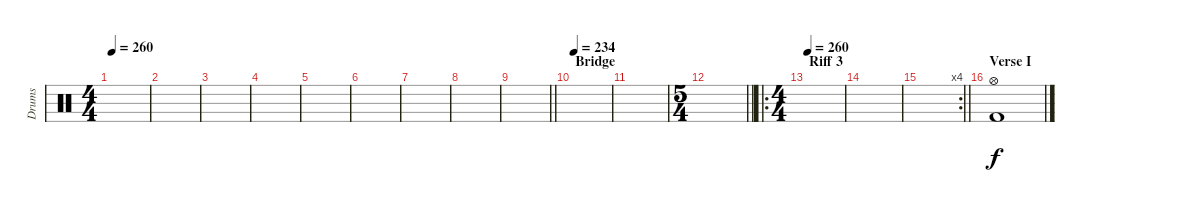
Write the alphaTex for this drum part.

\track ("Drums" "Drums") {instrument percussion}
\staff {score}
\articulation defaults
\ts (4 4)
\tempo 260
\clef neutral
\ks c
|
|
|
|
|
|
|
|
\barLineRight lightlight
|
\section ("" "Bridge")
\tempo 234
|
|
\ts (5 4)
\barLineRight lightlight
|
\ro
\ts (4 4)
\section ("" "Riff 3")
\tempo 260
|
|
\rc 4
\barLineRight lightlight
|
\section ("" "Verse I")
("Hi-Hat (open)" "Kick (hit) 2").1
